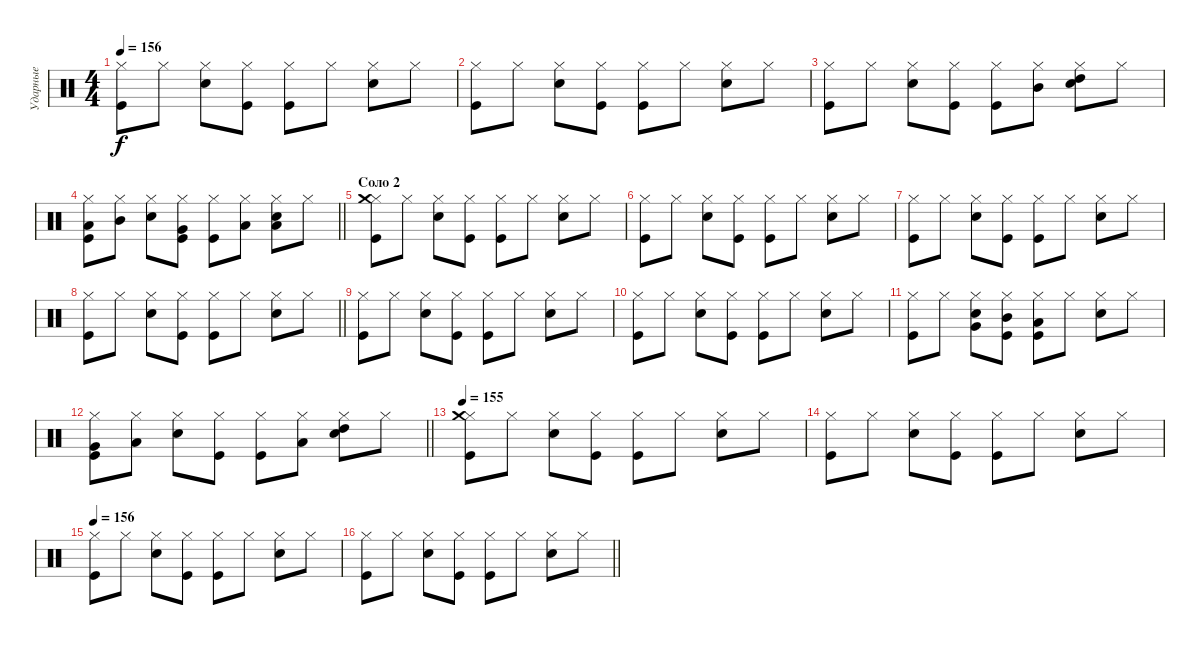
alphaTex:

\track ("Ударные" "Ударные") {instrument percussion}
\staff {score}
\articulation defaults
\ts (4 4)
\tempo 156
\clef neutral
\ks c
("Hi-Hat (closed)" "Kick (hit)").8{dy f} "Hi-Hat (closed)".8 ("Hi-Hat (closed)" "Snare (hit) 2").8 ("Hi-Hat (closed)" "Kick (hit)").8 ("Hi-Hat (closed)" "Kick (hit)").8 "Hi-Hat (closed)".8 ("Hi-Hat (closed)" "Snare (hit) 2").8 "Hi-Hat (closed)".8 |
("Hi-Hat (closed)" "Kick (hit)").8 "Hi-Hat (closed)".8 ("Hi-Hat (closed)" "Snare (hit) 2").8 ("Hi-Hat (closed)" "Kick (hit)").8 ("Hi-Hat (closed)" "Kick (hit)").8 "Hi-Hat (closed)".8 ("Hi-Hat (closed)" "Snare (hit) 2").8 "Hi-Hat (closed)".8 |
("Hi-Hat (closed)" "Kick (hit)").8 "Hi-Hat (closed)".8 ("Hi-Hat (closed)" "Snare (hit) 2").8 ("Hi-Hat (closed)" "Kick (hit)").8 ("Hi-Hat (closed)" "Kick (hit)").8 ("Hi-Hat (closed)" "Mid Tom (hit)").8 ("Hi-Hat (closed)" "Snare (hit) 2" "High Tom (hit)").8 "Hi-Hat (closed)".8 |
\barLineRight lightlight
("Hi-Hat (closed)" "Kick (hit)" "Low Tom (hit)").8 ("Hi-Hat (closed)" "Mid Tom (hit)").8 ("Hi-Hat (closed)" "Snare (hit) 2").8 ("Hi-Hat (closed)" "Kick (hit)" "Very Low Tom (hit)").8 ("Hi-Hat (closed)" "Kick (hit)").8 ("Hi-Hat (closed)" "Low Floor Tom (hit)").8 ("Hi-Hat (closed)" "Snare (hit) 2" "Low Tom (hit)").8 "Hi-Hat (closed)".8 |
\section ("" "Соло 2")
("Hi-Hat (closed)" "Kick (hit)" "Crash medium (hit)").8 "Hi-Hat (closed)".8 ("Hi-Hat (closed)" "Snare (hit) 2").8 ("Hi-Hat (closed)" "Kick (hit)").8 ("Hi-Hat (closed)" "Kick (hit)").8 "Hi-Hat (closed)".8 ("Hi-Hat (closed)" "Snare (hit) 2").8 "Hi-Hat (closed)".8 |
("Hi-Hat (closed)" "Kick (hit)").8 "Hi-Hat (closed)".8 ("Hi-Hat (closed)" "Snare (hit) 2").8 ("Hi-Hat (closed)" "Kick (hit)").8 ("Hi-Hat (closed)" "Kick (hit)").8 "Hi-Hat (closed)".8 ("Hi-Hat (closed)" "Snare (hit) 2").8 "Hi-Hat (closed)".8 |
("Hi-Hat (closed)" "Kick (hit)").8 "Hi-Hat (closed)".8 ("Hi-Hat (closed)" "Snare (hit) 2").8 ("Hi-Hat (closed)" "Kick (hit)").8 ("Hi-Hat (closed)" "Kick (hit)").8 "Hi-Hat (closed)".8 ("Hi-Hat (closed)" "Snare (hit) 2").8 "Hi-Hat (closed)".8 |
\barLineRight lightlight
("Hi-Hat (closed)" "Kick (hit)").8 "Hi-Hat (closed)".8 ("Hi-Hat (closed)" "Snare (hit) 2").8 ("Hi-Hat (closed)" "Kick (hit)").8 ("Hi-Hat (closed)" "Kick (hit)").8 "Hi-Hat (closed)".8 ("Hi-Hat (closed)" "Snare (hit) 2").8 "Hi-Hat (closed)".8 |
("Hi-Hat (closed)" "Kick (hit)").8 "Hi-Hat (closed)".8 ("Hi-Hat (closed)" "Snare (hit) 2").8 ("Hi-Hat (closed)" "Kick (hit)").8 ("Hi-Hat (closed)" "Kick (hit)").8 "Hi-Hat (closed)".8 ("Hi-Hat (closed)" "Snare (hit) 2").8 "Hi-Hat (closed)".8 |
("Hi-Hat (closed)" "Kick (hit)").8 "Hi-Hat (closed)".8 ("Hi-Hat (closed)" "Snare (hit) 2").8 ("Hi-Hat (closed)" "Kick (hit)").8 ("Hi-Hat (closed)" "Kick (hit)").8 "Hi-Hat (closed)".8 ("Hi-Hat (closed)" "Snare (hit) 2").8 "Hi-Hat (closed)".8 |
("Hi-Hat (closed)" "Kick (hit)").8 "Hi-Hat (closed)".8 ("Hi-Hat (closed)" "Snare (hit) 2" "Very Low Tom (hit)").8 ("Hi-Hat (closed)" "Kick (hit)" "Mid Tom (hit)").8 ("Hi-Hat (closed)" "Kick (hit)" "Low Floor Tom (hit)").8 "Hi-Hat (closed)".8 ("Hi-Hat (closed)" "Snare (hit) 2").8 "Hi-Hat (closed)".8 |
\barLineRight lightlight
("Hi-Hat (closed)" "Kick (hit)" "Very Low Tom (hit)").8 ("Hi-Hat (closed)" "Low Tom (hit)").8 ("Hi-Hat (closed)" "Snare (hit) 2").8 ("Hi-Hat (closed)" "Kick (hit)").8 ("Hi-Hat (closed)" "Kick (hit)").8 ("Hi-Hat (closed)" "Low Tom (hit)").8 ("Hi-Hat (closed)" "Snare (hit) 2" "High Tom (hit)").8 "Hi-Hat (closed)".8 |
\tempo 155
("Hi-Hat (closed)" "Kick (hit)" "Crash medium (hit)").8 "Hi-Hat (closed)".8 ("Hi-Hat (closed)" "Snare (hit) 2").8 ("Hi-Hat (closed)" "Kick (hit)").8 ("Hi-Hat (closed)" "Kick (hit)").8 "Hi-Hat (closed)".8 ("Hi-Hat (closed)" "Snare (hit) 2").8 "Hi-Hat (closed)".8 |
("Hi-Hat (closed)" "Kick (hit)").8 "Hi-Hat (closed)".8 ("Hi-Hat (closed)" "Snare (hit) 2").8 ("Hi-Hat (closed)" "Kick (hit)").8 ("Hi-Hat (closed)" "Kick (hit)").8 "Hi-Hat (closed)".8 ("Hi-Hat (closed)" "Snare (hit) 2").8 "Hi-Hat (closed)".8 |
\tempo 156
("Hi-Hat (closed)" "Kick (hit)").8 "Hi-Hat (closed)".8 ("Hi-Hat (closed)" "Snare (hit) 2").8 ("Hi-Hat (closed)" "Kick (hit)").8 ("Hi-Hat (closed)" "Kick (hit)").8 "Hi-Hat (closed)".8 ("Hi-Hat (closed)" "Snare (hit) 2").8 "Hi-Hat (closed)".8 |
\barLineRight lightlight
("Hi-Hat (closed)" "Kick (hit)").8 "Hi-Hat (closed)".8 ("Hi-Hat (closed)" "Snare (hit) 2").8 ("Hi-Hat (closed)" "Kick (hit)").8 ("Hi-Hat (closed)" "Kick (hit)").8 "Hi-Hat (closed)".8 ("Hi-Hat (closed)" "Snare (hit) 2").8 "Hi-Hat (closed)".8
